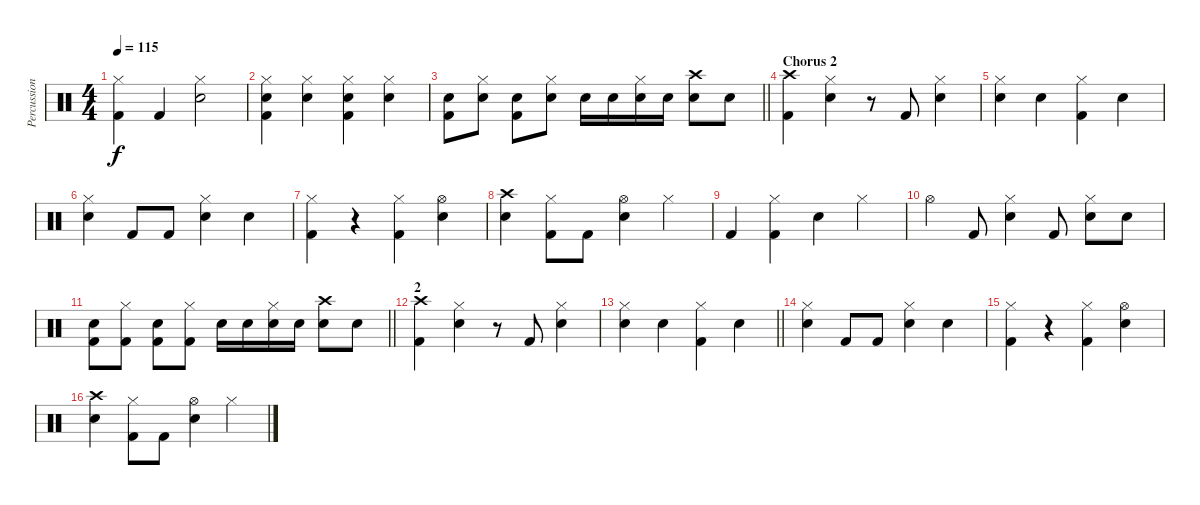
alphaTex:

\track ("Percussion" "Percussion") {instrument percussion}
\staff {score}
\articulation defaults
\ts (4 4)
\tempo 115
\clef neutral
\ks c
("Hi-Hat (closed)" "Kick (hit) 2").4{dy f} "Kick (hit) 2".4 ("Hi-Hat (closed)" "Snare (hit) 2").2 |
("Hi-Hat (closed)" "Snare (hit) 2" "Kick (hit) 2").4 ("Hi-Hat (closed)" "Snare (hit) 2").4 ("Hi-Hat (closed)" "Snare (hit) 2" "Kick (hit) 2").4 ("Hi-Hat (closed)" "Snare (hit) 2").4 |
\barLineRight lightlight
("Snare (hit) 2" "Kick (hit) 2").8 ("Hi-Hat (closed)" "Snare (hit) 2").8 ("Snare (hit) 2" "Kick (hit) 2").8 ("Hi-Hat (closed)" "Snare (hit) 2").8 "Snare (hit) 2".16 "Snare (hit) 2".16 ("Hi-Hat (closed)" "Snare (hit) 2").16 "Snare (hit) 2".16 ("Crash high (hit)" "Snare (hit) 2").8 "Snare (hit) 2".8 |
\section ("" "Chorus 2")
("Crash high (hit)" "Kick (hit) 2").4 ("Hi-Hat (closed)" "Snare (hit) 2").4 r.8 "Kick (hit) 2".8 ("Hi-Hat (closed)" "Snare (hit) 2").4 |
("Hi-Hat (closed)" "Snare (hit) 2").4 "Snare (hit) 2".4 ("Hi-Hat (closed)" "Kick (hit) 2").4 "Snare (hit) 2".4 |
("Hi-Hat (closed)" "Snare (hit) 2").4 "Kick (hit) 2".8 "Kick (hit) 2".8 ("Hi-Hat (closed)" "Snare (hit) 2").4 "Snare (hit) 2".4 |
("Hi-Hat (closed)" "Kick (hit) 2").4 r.4 ("Hi-Hat (closed)" "Kick (hit) 2").4 ("Hi-Hat (open)" "Snare (hit) 2").4 |
("Crash high (hit)" "Snare (hit) 2").4 ("Hi-Hat (closed)" "Kick (hit) 2").8 "Kick (hit) 2".8 ("Hi-Hat (open)" "Snare (hit) 2").4 "Hi-Hat (closed)".4 |
"Kick (hit) 2".4 ("Hi-Hat (closed)" "Kick (hit) 2").4 "Snare (hit) 2".4 "Hi-Hat (closed)".4 |
"Hi-Hat (open)".4 "Kick (hit) 2".8 ("Hi-Hat (closed)" "Snare (hit) 2").4 "Kick (hit) 2".8 ("Hi-Hat (closed)" "Snare (hit) 2").8 "Snare (hit) 2".8 |
\barLineRight lightlight
("Snare (hit) 2" "Kick (hit) 2").8 ("Hi-Hat (closed)" "Kick (hit) 2").8 ("Snare (hit) 2" "Kick (hit) 2").8 ("Hi-Hat (closed)" "Kick (hit) 2").8 "Snare (hit) 2".16 "Snare (hit) 2".16 ("Hi-Hat (closed)" "Snare (hit) 2").16 "Snare (hit) 2".16 ("Crash high (hit)" "Snare (hit) 2").8 "Snare (hit) 2".8 |
\section ("" "2")
("Crash high (hit)" "Kick (hit) 2").4 ("Hi-Hat (closed)" "Snare (hit) 2").4 r.8 "Kick (hit) 2".8 ("Hi-Hat (closed)" "Snare (hit) 2").4 |
\barLineRight lightlight
("Hi-Hat (closed)" "Snare (hit) 2").4 "Snare (hit) 2".4 ("Hi-Hat (closed)" "Kick (hit) 2").4 "Snare (hit) 2".4 |
("Hi-Hat (closed)" "Snare (hit) 2").4 "Kick (hit) 2".8 "Kick (hit) 2".8 ("Hi-Hat (closed)" "Snare (hit) 2").4 "Snare (hit) 2".4 |
("Hi-Hat (closed)" "Kick (hit) 2").4 r.4 ("Hi-Hat (closed)" "Kick (hit) 2").4 ("Hi-Hat (open)" "Snare (hit) 2").4 |
("Crash high (hit)" "Snare (hit) 2").4 ("Hi-Hat (closed)" "Kick (hit) 2").8 "Kick (hit) 2".8 ("Hi-Hat (open)" "Snare (hit) 2").4 "Hi-Hat (closed)".4
